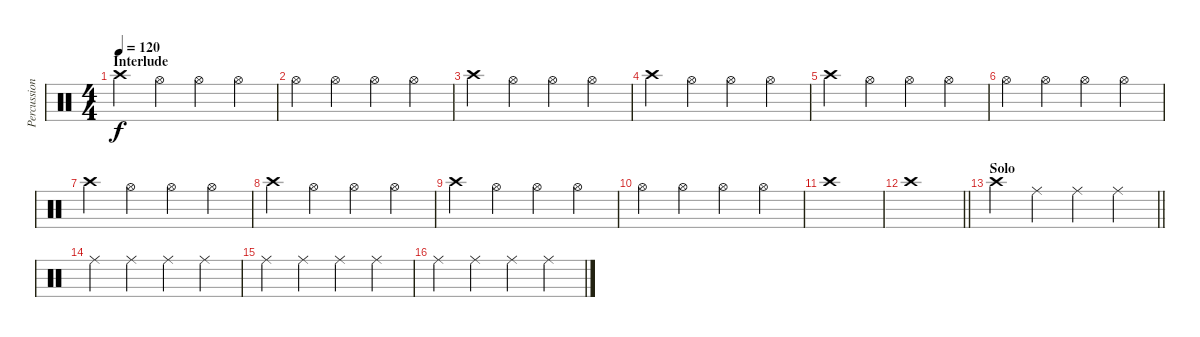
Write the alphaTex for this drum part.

\track ("Percussion" "Percussion") {instrument percussion}
\staff {score}
\articulation defaults
\ts (4 4)
\section ("" "Interlude")
\tempo 120
\clef neutral
\ks c "Crash high (hit)".4{dy f} "Hi-Hat (open)".4 "Hi-Hat (open)".4 "Hi-Hat (open)".4
|
"Hi-Hat (open)".4 "Hi-Hat (open)".4 "Hi-Hat (open)".4 "Hi-Hat (open)".4 |
"Crash high (hit)".4 "Hi-Hat (open)".4 "Hi-Hat (open)".4 "Hi-Hat (open)".4 |
"Crash high (hit)".4 "Hi-Hat (open)".4 "Hi-Hat (open)".4 "Hi-Hat (open)".4 |
"Crash high (hit)".4 "Hi-Hat (open)".4 "Hi-Hat (open)".4 "Hi-Hat (open)".4 |
"Hi-Hat (open)".4 "Hi-Hat (open)".4 "Hi-Hat (open)".4 "Hi-Hat (open)".4 |
"Crash high (hit)".4 "Hi-Hat (open)".4 "Hi-Hat (open)".4 "Hi-Hat (open)".4 |
"Crash high (hit)".4 "Hi-Hat (open)".4 "Hi-Hat (open)".4 "Hi-Hat (open)".4 |
"Crash high (hit)".4 "Hi-Hat (open)".4 "Hi-Hat (open)".4 "Hi-Hat (open)".4 |
"Hi-Hat (open)".4 "Hi-Hat (open)".4 "Hi-Hat (open)".4 "Hi-Hat (open)".4 |
"Crash high (hit)".1 |
\barLineRight lightlight "Crash high (hit)".1
|
\section ("" "Solo")
\barLineRight lightlight "Crash high (hit)".4 "Ride (middle)".4 "Ride (middle)".4 "Ride (middle)".4
|
"Ride (middle)".4 "Ride (middle)".4 "Ride (middle)".4 "Ride (middle)".4 |
"Ride (middle)".4 "Ride (middle)".4 "Ride (middle)".4 "Ride (middle)".4 |
"Ride (middle)".4 "Ride (middle)".4 "Ride (middle)".4 "Ride (middle)".4
